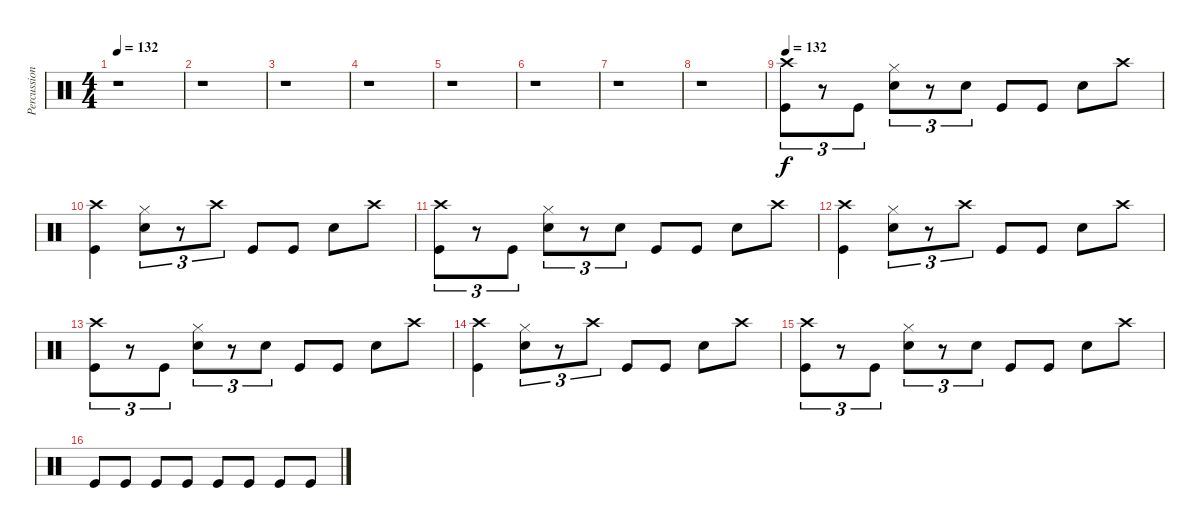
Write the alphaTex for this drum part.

\track ("Percussion" "Percussion") {instrument percussion}
\staff {score}
\articulation defaults
\ts (4 4)
\tempo 132
\clef neutral
\ks c
r.1{dy f} |
r.1 |
r.1 |
r.1 |
r.1 |
r.1 |
r.1 |
r.1 |
\tempo 132
("Kick (hit)" "Crash high (hit)").8{tu (3 2)} r.8{tu (3 2)} "Kick (hit)".8{tu (3 2)} ("Electric Snare (hit)" "Hi-Hat (closed)").8{tu (3 2)} r.8{tu (3 2)} "Electric Snare (hit)".8{tu (3 2)} "Kick (hit)".8 "Kick (hit)".8 "Electric Snare (hit)".8 "Crash high (hit)".8 |
("Kick (hit)" "Crash high (hit)").4 ("Electric Snare (hit)" "Hi-Hat (closed)").8{tu (3 2)} r.8{tu (3 2)} "Crash high (hit)".8{tu (3 2)} "Kick (hit)".8 "Kick (hit)".8 "Electric Snare (hit)".8 "Crash high (hit)".8 |
("Kick (hit)" "Crash high (hit)").8{tu (3 2)} r.8{tu (3 2)} "Kick (hit)".8{tu (3 2)} ("Electric Snare (hit)" "Hi-Hat (closed)").8{tu (3 2)} r.8{tu (3 2)} "Electric Snare (hit)".8{tu (3 2)} "Kick (hit)".8 "Kick (hit)".8 "Electric Snare (hit)".8 "Crash high (hit)".8 |
("Kick (hit)" "Crash high (hit)").4 ("Electric Snare (hit)" "Hi-Hat (closed)").8{tu (3 2)} r.8{tu (3 2)} "Crash high (hit)".8{tu (3 2)} "Kick (hit)".8 "Kick (hit)".8 "Electric Snare (hit)".8 "Crash high (hit)".8 |
("Kick (hit)" "Crash high (hit)").8{tu (3 2)} r.8{tu (3 2)} "Kick (hit)".8{tu (3 2)} ("Electric Snare (hit)" "Hi-Hat (closed)").8{tu (3 2)} r.8{tu (3 2)} "Electric Snare (hit)".8{tu (3 2)} "Kick (hit)".8 "Kick (hit)".8 "Electric Snare (hit)".8 "Crash high (hit)".8 |
("Kick (hit)" "Crash high (hit)").4 ("Electric Snare (hit)" "Hi-Hat (closed)").8{tu (3 2)} r.8{tu (3 2)} "Crash high (hit)".8{tu (3 2)} "Kick (hit)".8 "Kick (hit)".8 "Electric Snare (hit)".8 "Crash high (hit)".8 |
("Kick (hit)" "Crash high (hit)").8{tu (3 2)} r.8{tu (3 2)} "Kick (hit)".8{tu (3 2)} ("Electric Snare (hit)" "Hi-Hat (closed)").8{tu (3 2)} r.8{tu (3 2)} "Electric Snare (hit)".8{tu (3 2)} "Kick (hit)".8 "Kick (hit)".8 "Electric Snare (hit)".8 "Crash high (hit)".8 |
"Kick (hit)".8 "Kick (hit)".8 "Kick (hit)".8 "Kick (hit)".8 "Kick (hit)".8 "Kick (hit)".8 "Kick (hit)".8 "Kick (hit)".8
